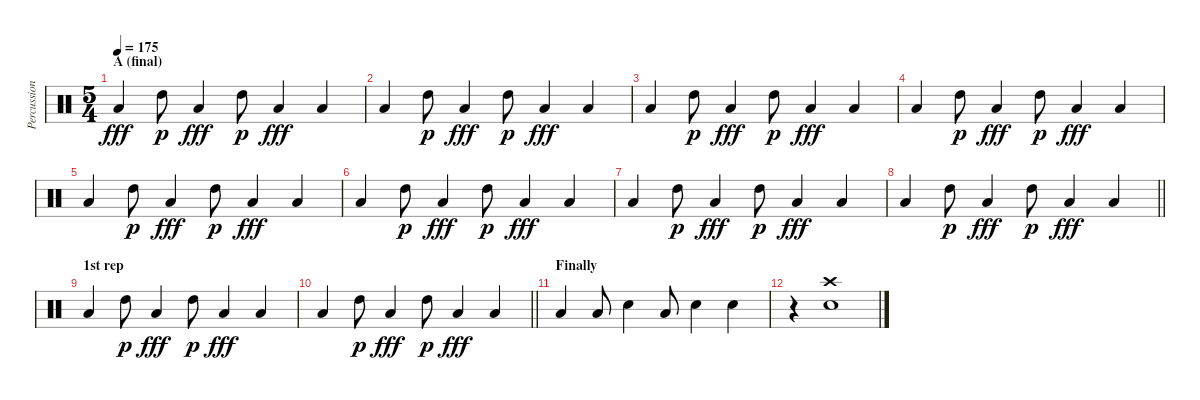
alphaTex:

\track ("Percussion" "Percussion") {instrument percussion}
\staff {score}
\articulation defaults
\ts (5 4)
\section ("" "A (final)")
\tempo 175
\clef neutral
\ks c "Low Tom (hit)".4{dy fff} "High Tom (hit)".8{dy p} "Low Tom (hit)".4{dy fff} "High Tom (hit)".8{dy p} "Low Tom (hit)".4{dy fff} "Low Tom (hit)".4
|
"Low Tom (hit)".4 "High Tom (hit)".8{dy p} "Low Tom (hit)".4{dy fff} "High Tom (hit)".8{dy p} "Low Tom (hit)".4{dy fff} "Low Tom (hit)".4 |
"Low Tom (hit)".4 "High Tom (hit)".8{dy p} "Low Tom (hit)".4{dy fff} "High Tom (hit)".8{dy p} "Low Tom (hit)".4{dy fff} "Low Tom (hit)".4 |
"Low Tom (hit)".4 "High Tom (hit)".8{dy p} "Low Tom (hit)".4{dy fff} "High Tom (hit)".8{dy p} "Low Tom (hit)".4{dy fff} "Low Tom (hit)".4 |
"Low Tom (hit)".4 "High Tom (hit)".8{dy p} "Low Tom (hit)".4{dy fff} "High Tom (hit)".8{dy p} "Low Tom (hit)".4{dy fff} "Low Tom (hit)".4 |
"Low Tom (hit)".4 "High Tom (hit)".8{dy p} "Low Tom (hit)".4{dy fff} "High Tom (hit)".8{dy p} "Low Tom (hit)".4{dy fff} "Low Tom (hit)".4 |
"Low Tom (hit)".4 "High Tom (hit)".8{dy p} "Low Tom (hit)".4{dy fff} "High Tom (hit)".8{dy p} "Low Tom (hit)".4{dy fff} "Low Tom (hit)".4 |
\barLineRight lightlight "Low Tom (hit)".4 "High Tom (hit)".8{dy p} "Low Tom (hit)".4{dy fff} "High Tom (hit)".8{dy p} "Low Tom (hit)".4{dy fff} "Low Tom (hit)".4
|
\section ("" "1st rep")
"Low Tom (hit)".4 "High Tom (hit)".8{dy p} "Low Tom (hit)".4{dy fff} "High Tom (hit)".8{dy p} "Low Tom (hit)".4{dy fff} "Low Tom (hit)".4 |
\barLineRight lightlight "Low Tom (hit)".4 "High Tom (hit)".8{dy p} "Low Tom (hit)".4{dy fff} "High Tom (hit)".8{dy p} "Low Tom (hit)".4{dy fff} "Low Tom (hit)".4
|
\section ("" "Finally")
"Low Tom (hit)".4 "Low Tom (hit)".8 "Snare (hit) 2".4 "Low Tom (hit)".8 "Snare (hit) 2".4 "Snare (hit) 2".4 |
r.4 ("Crash high (hit)" "Snare (hit) 2").1
